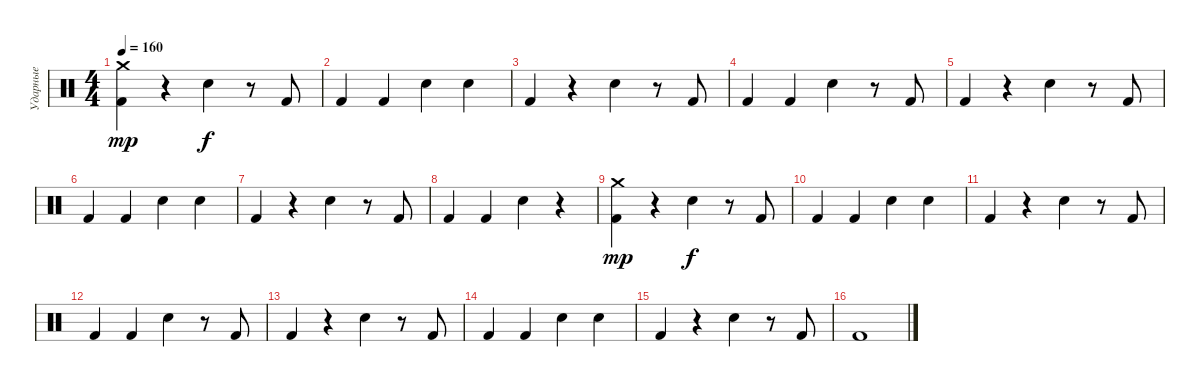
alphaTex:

\track ("Ударные" "Ударные") {instrument percussion}
\staff {score}
\articulation defaults
\ts (4 4)
\tempo 160
\clef neutral
\ks c
("Kick (hit) 2" "Crash medium (hit)").4{dy mp} r.4 "Electric Snare (hit)".4{dy f} r.8 "Kick (hit) 2".8 |
"Kick (hit) 2".4 "Kick (hit) 2".4 "Electric Snare (hit)".4 "Electric Snare (hit)".4 |
"Kick (hit) 2".4 r.4 "Electric Snare (hit)".4 r.8 "Kick (hit) 2".8 |
"Kick (hit) 2".4 "Kick (hit) 2".4 "Electric Snare (hit)".4 r.8 "Kick (hit) 2".8 |
"Kick (hit) 2".4 r.4 "Electric Snare (hit)".4 r.8 "Kick (hit) 2".8 |
"Kick (hit) 2".4 "Kick (hit) 2".4 "Electric Snare (hit)".4 "Electric Snare (hit)".4 |
"Kick (hit) 2".4 r.4 "Electric Snare (hit)".4 r.8 "Kick (hit) 2".8 |
"Kick (hit) 2".4 "Kick (hit) 2".4 "Electric Snare (hit)".4 r.4 |
("Kick (hit) 2" "Crash medium (hit)").4{dy mp} r.4 "Electric Snare (hit)".4{dy f} r.8 "Kick (hit) 2".8 |
"Kick (hit) 2".4 "Kick (hit) 2".4 "Electric Snare (hit)".4 "Electric Snare (hit)".4 |
"Kick (hit) 2".4 r.4 "Electric Snare (hit)".4 r.8 "Kick (hit) 2".8 |
"Kick (hit) 2".4 "Kick (hit) 2".4 "Electric Snare (hit)".4 r.8 "Kick (hit) 2".8 |
"Kick (hit) 2".4 r.4 "Electric Snare (hit)".4 r.8 "Kick (hit) 2".8 |
"Kick (hit) 2".4 "Kick (hit) 2".4 "Electric Snare (hit)".4 "Electric Snare (hit)".4 |
"Kick (hit) 2".4 r.4 "Electric Snare (hit)".4 r.8 "Kick (hit) 2".8 |
"Kick (hit) 2".1
